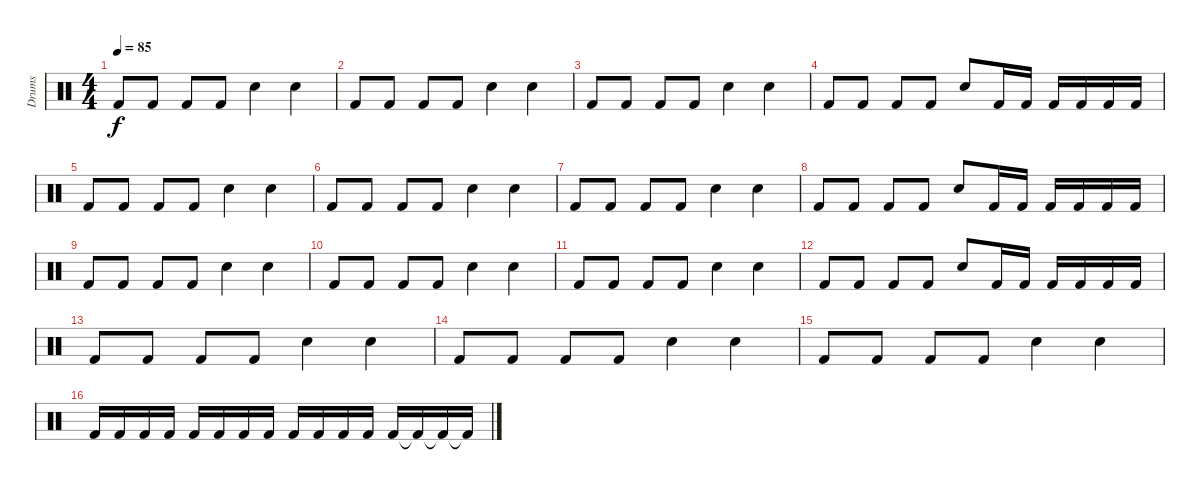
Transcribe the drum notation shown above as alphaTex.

\track ("Drums" "Drums") {instrument percussion}
\staff {score}
\articulation defaults
\ts (4 4)
\tempo 85
\clef neutral
\ks c "Kick (hit) 2".8{dy f} "Kick (hit) 2".8 "Kick (hit) 2".8 "Kick (hit) 2".8 "Snare (hit) 2".4 "Snare (hit) 2".4
|
"Kick (hit) 2".8 "Kick (hit) 2".8 "Kick (hit) 2".8 "Kick (hit) 2".8 "Snare (hit) 2".4 "Snare (hit) 2".4 |
"Kick (hit) 2".8 "Kick (hit) 2".8 "Kick (hit) 2".8 "Kick (hit) 2".8 "Snare (hit) 2".4 "Snare (hit) 2".4 |
"Kick (hit) 2".8 "Kick (hit) 2".8 "Kick (hit) 2".8 "Kick (hit) 2".8 "Snare (hit) 2".8 "Kick (hit) 2".16 "Kick (hit) 2".16 "Kick (hit) 2".16 "Kick (hit) 2".16 "Kick (hit) 2".16 "Kick (hit) 2".16 |
"Kick (hit) 2".8 "Kick (hit) 2".8 "Kick (hit) 2".8 "Kick (hit) 2".8 "Snare (hit) 2".4 "Snare (hit) 2".4 |
"Kick (hit) 2".8 "Kick (hit) 2".8 "Kick (hit) 2".8 "Kick (hit) 2".8 "Snare (hit) 2".4 "Snare (hit) 2".4 |
"Kick (hit) 2".8 "Kick (hit) 2".8 "Kick (hit) 2".8 "Kick (hit) 2".8 "Snare (hit) 2".4 "Snare (hit) 2".4 |
"Kick (hit) 2".8 "Kick (hit) 2".8 "Kick (hit) 2".8 "Kick (hit) 2".8 "Snare (hit) 2".8 "Kick (hit) 2".16 "Kick (hit) 2".16 "Kick (hit) 2".16 "Kick (hit) 2".16 "Kick (hit) 2".16 "Kick (hit) 2".16 |
"Kick (hit) 2".8 "Kick (hit) 2".8 "Kick (hit) 2".8 "Kick (hit) 2".8 "Snare (hit) 2".4 "Snare (hit) 2".4 |
"Kick (hit) 2".8 "Kick (hit) 2".8 "Kick (hit) 2".8 "Kick (hit) 2".8 "Snare (hit) 2".4 "Snare (hit) 2".4 |
"Kick (hit) 2".8 "Kick (hit) 2".8 "Kick (hit) 2".8 "Kick (hit) 2".8 "Snare (hit) 2".4 "Snare (hit) 2".4 |
"Kick (hit) 2".8 "Kick (hit) 2".8 "Kick (hit) 2".8 "Kick (hit) 2".8 "Snare (hit) 2".8 "Kick (hit) 2".16 "Kick (hit) 2".16 "Kick (hit) 2".16 "Kick (hit) 2".16 "Kick (hit) 2".16 "Kick (hit) 2".16 |
"Kick (hit) 2".8 "Kick (hit) 2".8 "Kick (hit) 2".8 "Kick (hit) 2".8 "Snare (hit) 2".4 "Snare (hit) 2".4 |
"Kick (hit) 2".8 "Kick (hit) 2".8 "Kick (hit) 2".8 "Kick (hit) 2".8 "Snare (hit) 2".4 "Snare (hit) 2".4 |
"Kick (hit) 2".8 "Kick (hit) 2".8 "Kick (hit) 2".8 "Kick (hit) 2".8 "Snare (hit) 2".4 "Snare (hit) 2".4 |
"Kick (hit) 2".16 "Kick (hit) 2".16 "Kick (hit) 2".16 "Kick (hit) 2".16 "Kick (hit) 2".16 "Kick (hit) 2".16 "Kick (hit) 2".16 "Kick (hit) 2".16 "Kick (hit) 2".16 "Kick (hit) 2".16 "Kick (hit) 2".16 "Kick (hit) 2".16 "Kick (hit) 2".16 "Kick (hit) 2"{t}.16 "Kick (hit) 2"{t}.16 "Kick (hit) 2"{t}.16
